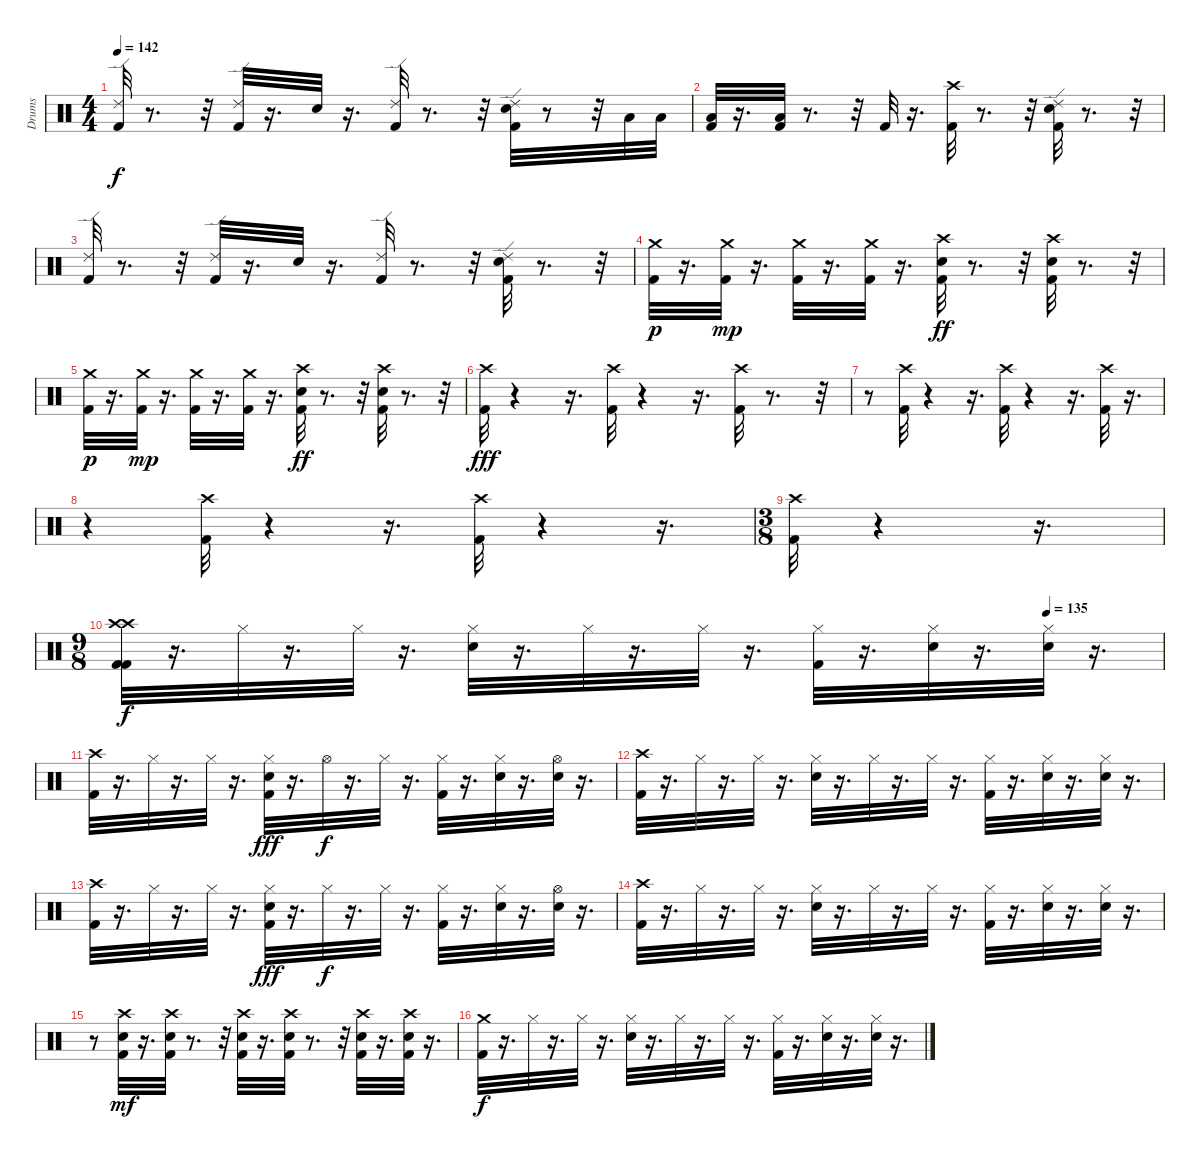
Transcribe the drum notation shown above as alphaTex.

\track ("Drums" "Drums") {instrument percussion}
\staff {score}
\articulation defaults
\ts (4 4)
\tempo 142
\clef neutral
\ks c
("Ride (edge) 2" "Kick (hit) 2").32{dy f} r.8{d} r.32 ("Ride (edge) 2" "Kick (hit) 2").32 r.16{d} "Electric Snare (hit)".32 r.16{d} ("Ride (edge) 2" "Kick (hit) 2").32 r.8{d} r.32 ("Ride (edge) 2" "Electric Snare (hit)" "Kick (hit) 2").32 r.8 r.32 "Low Tom (hit)".32 "Low Tom (hit)".32 |
("Low Tom (hit)" "Kick (hit) 2").32 r.16{d} ("Low Tom (hit)" "Kick (hit) 2").32 r.8{d} r.32 "Kick (hit) 2".32 r.16{d} ("Crash high (hit)" "Kick (hit) 2").32 r.8{d} r.32 ("Ride (edge) 2" "Electric Snare (hit)" "Kick (hit) 2").32 r.8{d} r.32 |
("Ride (edge) 2" "Kick (hit) 2").32 r.8{d} r.32 ("Ride (edge) 2" "Kick (hit) 2").32 r.16{d} "Electric Snare (hit)".32 r.16{d} ("Ride (edge) 2" "Kick (hit) 2").32 r.8{d} r.32 ("Ride (edge) 2" "Electric Snare (hit)" "Kick (hit) 2").32 r.8{d} r.32 |
("Crash medium (hit)" "Kick (hit) 2").32{dy p} r.16{d} ("Crash medium (hit)" "Kick (hit) 2").32{dy mp} r.16{d} ("Crash medium (hit)" "Kick (hit) 2").32 r.16{d} ("Crash medium (hit)" "Kick (hit) 2").32 r.16{d} ("Electric Snare (hit)" "Crash high (hit)" "Kick (hit) 2").32{dy ff} r.8{d} r.32 ("Electric Snare (hit)" "Crash high (hit)" "Kick (hit) 2").32 r.8{d} r.32 |
("Crash medium (hit)" "Kick (hit) 2").32{dy p} r.16{d} ("Crash medium (hit)" "Kick (hit) 2").32{dy mp} r.16{d} ("Crash medium (hit)" "Kick (hit) 2").32 r.16{d} ("Crash medium (hit)" "Kick (hit) 2").32 r.16{d} ("Electric Snare (hit)" "Crash high (hit)" "Kick (hit) 2").32{dy ff} r.8{d} r.32 ("Electric Snare (hit)" "Crash high (hit)" "Kick (hit) 2").32 r.8{d} r.32 |
("Kick (hit) 2" "Crash high (hit)").32{dy fff} r.4 r.16{d} ("Kick (hit) 2" "Crash high (hit)").32 r.4 r.16{d} ("Kick (hit) 2" "Crash high (hit)").32 r.8{d} r.32 |
r.8 ("Kick (hit) 2" "Crash high (hit)").32 r.4 r.16{d} ("Kick (hit) 2" "Crash high (hit)").32 r.4 r.16{d} ("Kick (hit) 2" "Crash high (hit)").32 r.16{d} |
r.4 ("Kick (hit) 2" "Crash high (hit)").32 r.4 r.16{d} ("Kick (hit) 2" "Crash high (hit)").32 r.4 r.16{d} |
\ts (3 8)
("Kick (hit) 2" "Crash high (hit)").32 r.4 r.16{d} |
\ts (9 8)
\tempo (135 0.8888888888888888)
("Crash high (hit)" "Kick (hit) 2" "Kick (hit) 2" "Crash high (hit)").32{dy f} r.16{d} "Hi-Hat (closed)".32 r.16{d} "Hi-Hat (closed)".32 r.16{d} ("Electric Snare (hit)" "Hi-Hat (closed)").32 r.16{d} "Hi-Hat (closed)".32 r.16{d} "Hi-Hat (closed)".32 r.16{d} ("Hi-Hat (closed)" "Kick (hit) 2").32 r.16{d} ("Electric Snare (hit)" "Hi-Hat (closed)").32 r.16{d} ("Electric Snare (hit)" "Hi-Hat (closed)").32 r.16{d} |
("Crash high (hit)" "Kick (hit) 2").32 r.16{d} "Hi-Hat (closed)".32 r.16{d} "Hi-Hat (closed)".32 r.16{d} ("Electric Snare (hit)" "Hi-Hat (closed)" "Kick (hit) 2").32{dy fff} r.16{d} "Hi-Hat (open)".32{dy f} r.16{d} "Hi-Hat (closed)".32 r.16{d} ("Hi-Hat (closed)" "Kick (hit) 2").32 r.16{d} ("Electric Snare (hit)" "Hi-Hat (closed)").32 r.16{d} ("Electric Snare (hit)" "Hi-Hat (open)").32 r.16{d} |
("Crash high (hit)" "Kick (hit) 2").32 r.16{d} "Hi-Hat (closed)".32 r.16{d} "Hi-Hat (closed)".32 r.16{d} ("Electric Snare (hit)" "Hi-Hat (closed)").32 r.16{d} "Hi-Hat (closed)".32 r.16{d} "Hi-Hat (closed)".32 r.16{d} ("Hi-Hat (closed)" "Kick (hit) 2").32 r.16{d} ("Electric Snare (hit)" "Hi-Hat (closed)").32 r.16{d} ("Electric Snare (hit)" "Hi-Hat (closed)").32 r.16{d} |
("Crash high (hit)" "Kick (hit) 2").32 r.16{d} "Hi-Hat (closed)".32 r.16{d} "Hi-Hat (closed)".32 r.16{d} ("Electric Snare (hit)" "Hi-Hat (closed)" "Kick (hit) 2").32{dy fff} r.16{d} "Hi-Hat (closed)".32{dy f} r.16{d} "Hi-Hat (closed)".32 r.16{d} ("Hi-Hat (closed)" "Kick (hit) 2").32 r.16{d} ("Electric Snare (hit)" "Hi-Hat (closed)").32 r.16{d} ("Electric Snare (hit)" "Hi-Hat (open)").32 r.16{d} |
("Crash high (hit)" "Kick (hit) 2").32 r.16{d} "Hi-Hat (closed)".32 r.16{d} "Hi-Hat (closed)".32 r.16{d} ("Electric Snare (hit)" "Hi-Hat (closed)").32 r.16{d} "Hi-Hat (closed)".32 r.16{d} "Hi-Hat (closed)".32 r.16{d} ("Hi-Hat (closed)" "Kick (hit) 2").32 r.16{d} ("Electric Snare (hit)" "Hi-Hat (closed)").32 r.16{d} ("Electric Snare (hit)" "Hi-Hat (closed)").32 r.16{d} |
r.8 ("Crash high (hit)" "Electric Snare (hit)" "Kick (hit) 2").32{dy mf} r.16{d} ("Crash high (hit)" "Electric Snare (hit)" "Kick (hit) 2").32 r.8{d} r.32 ("Crash high (hit)" "Electric Snare (hit)" "Kick (hit) 2").32 r.16{d} ("Crash high (hit)" "Electric Snare (hit)" "Kick (hit) 2").32 r.8{d} r.32 ("Crash high (hit)" "Electric Snare (hit)" "Kick (hit) 2").32 r.16{d} ("Crash high (hit)" "Electric Snare (hit)" "Kick (hit) 2").32 r.16{d} |
("Crash medium (hit)" "Kick (hit) 2").32{dy f} r.16{d} "Hi-Hat (closed)".32 r.16{d} "Hi-Hat (closed)".32 r.16{d} ("Electric Snare (hit)" "Hi-Hat (closed)").32 r.16{d} "Hi-Hat (closed)".32 r.16{d} "Hi-Hat (closed)".32 r.16{d} ("Hi-Hat (closed)" "Kick (hit) 2").32 r.16{d} ("Electric Snare (hit)" "Hi-Hat (closed)").32 r.16{d} ("Electric Snare (hit)" "Hi-Hat (closed)").32 r.16{d}
